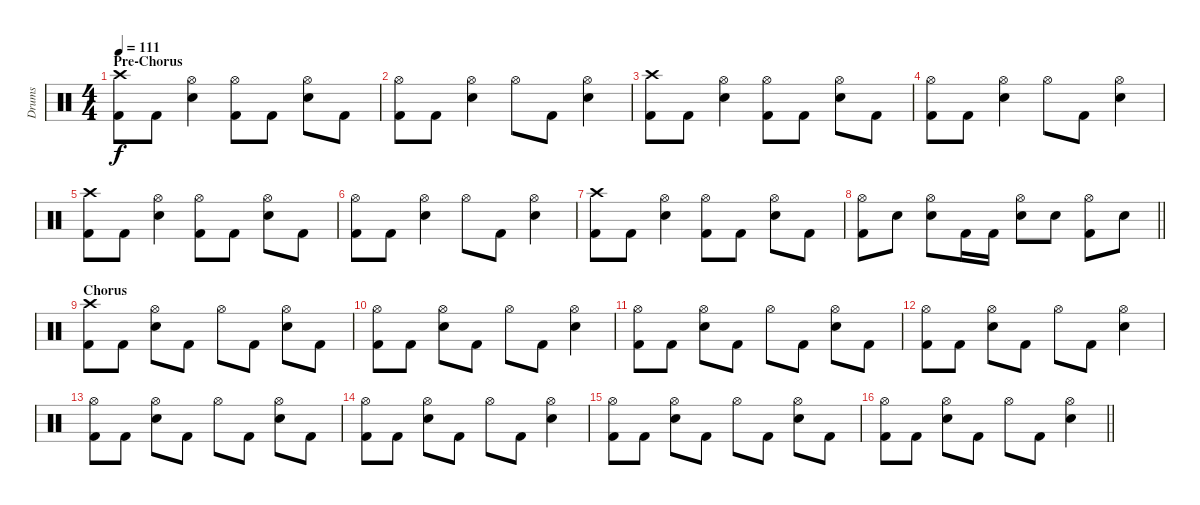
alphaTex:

\track ("Drums" "Drums") {instrument percussion}
\staff {score}
\articulation defaults
\ts (4 4)
\section ("" "Pre-Chorus")
\tempo 111
\clef neutral
\ks c
("Crash high (hit)" "Kick (hit) 2").8{dy f} "Kick (hit) 2".8 ("Hi-Hat (open)" "Snare (hit) 2").4 ("Hi-Hat (open)" "Kick (hit) 2").8 "Kick (hit) 2".8 ("Hi-Hat (open)" "Snare (hit) 2").8 "Kick (hit) 2".8 |
("Hi-Hat (open)" "Kick (hit) 2").8 "Kick (hit) 2".8 ("Hi-Hat (open)" "Snare (hit) 2").4 "Hi-Hat (open)".8 "Kick (hit) 2".8 ("Hi-Hat (open)" "Snare (hit) 2").4 |
("Crash high (hit)" "Kick (hit) 2").8 "Kick (hit) 2".8 ("Hi-Hat (open)" "Snare (hit) 2").4 ("Hi-Hat (open)" "Kick (hit) 2").8 "Kick (hit) 2".8 ("Hi-Hat (open)" "Snare (hit) 2").8 "Kick (hit) 2".8 |
("Hi-Hat (open)" "Kick (hit) 2").8 "Kick (hit) 2".8 ("Hi-Hat (open)" "Snare (hit) 2").4 "Hi-Hat (open)".8 "Kick (hit) 2".8 ("Hi-Hat (open)" "Snare (hit) 2").4 |
("Crash high (hit)" "Kick (hit) 2").8 "Kick (hit) 2".8 ("Hi-Hat (open)" "Snare (hit) 2").4 ("Hi-Hat (open)" "Kick (hit) 2").8 "Kick (hit) 2".8 ("Hi-Hat (open)" "Snare (hit) 2").8 "Kick (hit) 2".8 |
("Hi-Hat (open)" "Kick (hit) 2").8 "Kick (hit) 2".8 ("Hi-Hat (open)" "Snare (hit) 2").4 "Hi-Hat (open)".8 "Kick (hit) 2".8 ("Hi-Hat (open)" "Snare (hit) 2").4 |
("Crash high (hit)" "Kick (hit) 2").8 "Kick (hit) 2".8 ("Hi-Hat (open)" "Snare (hit) 2").4 ("Hi-Hat (open)" "Kick (hit) 2").8 "Kick (hit) 2".8 ("Hi-Hat (open)" "Snare (hit) 2").8 "Kick (hit) 2".8 |
\barLineRight lightlight
("Hi-Hat (open)" "Kick (hit) 2").8 "Snare (hit) 2".8 ("Hi-Hat (open)" "Snare (hit) 2").8 "Kick (hit) 2".16 "Kick (hit) 2".16 ("Hi-Hat (open)" "Snare (hit) 2").8 "Snare (hit) 2".8 ("Hi-Hat (open)" "Kick (hit) 2").8 "Snare (hit) 2".8 |
\section ("" "Chorus")
("Crash high (hit)" "Kick (hit) 2").8 "Kick (hit) 2".8 ("Hi-Hat (open)" "Snare (hit) 2").8 "Kick (hit) 2".8 "Hi-Hat (open)".8 "Kick (hit) 2".8 ("Hi-Hat (open)" "Snare (hit) 2").8 "Kick (hit) 2".8 |
("Hi-Hat (open)" "Kick (hit) 2").8 "Kick (hit) 2".8 ("Hi-Hat (open)" "Snare (hit) 2").8 "Kick (hit) 2".8 "Hi-Hat (open)".8 "Kick (hit) 2".8 ("Hi-Hat (open)" "Snare (hit) 2").4 |
("Hi-Hat (open)" "Kick (hit) 2").8 "Kick (hit) 2".8 ("Hi-Hat (open)" "Snare (hit) 2").8 "Kick (hit) 2".8 "Hi-Hat (open)".8 "Kick (hit) 2".8 ("Hi-Hat (open)" "Snare (hit) 2").8 "Kick (hit) 2".8 |
("Hi-Hat (open)" "Kick (hit) 2").8 "Kick (hit) 2".8 ("Hi-Hat (open)" "Snare (hit) 2").8 "Kick (hit) 2".8 "Hi-Hat (open)".8 "Kick (hit) 2".8 ("Hi-Hat (open)" "Snare (hit) 2").4 |
("Hi-Hat (open)" "Kick (hit) 2").8 "Kick (hit) 2".8 ("Hi-Hat (open)" "Snare (hit) 2").8 "Kick (hit) 2".8 "Hi-Hat (open)".8 "Kick (hit) 2".8 ("Hi-Hat (open)" "Snare (hit) 2").8 "Kick (hit) 2".8 |
("Hi-Hat (open)" "Kick (hit) 2").8 "Kick (hit) 2".8 ("Hi-Hat (open)" "Snare (hit) 2").8 "Kick (hit) 2".8 "Hi-Hat (open)".8 "Kick (hit) 2".8 ("Hi-Hat (open)" "Snare (hit) 2").4 |
("Hi-Hat (open)" "Kick (hit) 2").8 "Kick (hit) 2".8 ("Hi-Hat (open)" "Snare (hit) 2").8 "Kick (hit) 2".8 "Hi-Hat (open)".8 "Kick (hit) 2".8 ("Hi-Hat (open)" "Snare (hit) 2").8 "Kick (hit) 2".8 |
\barLineRight lightlight
("Hi-Hat (open)" "Kick (hit) 2").8 "Kick (hit) 2".8 ("Hi-Hat (open)" "Snare (hit) 2").8 "Kick (hit) 2".8 "Hi-Hat (open)".8 "Kick (hit) 2".8 ("Hi-Hat (open)" "Snare (hit) 2").4
